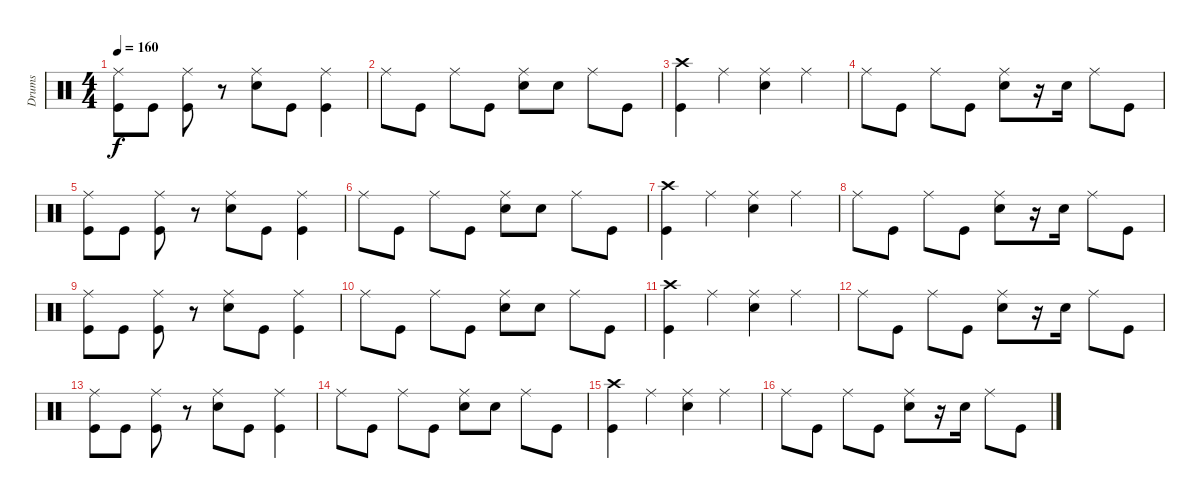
\track ("Drums" "Drums") {instrument percussion}
\staff {score}
\articulation defaults
\ts (4 4)
\tempo 160
\clef neutral
\ks c
("Ride (middle)" "Kick (hit)").8{dy f} "Kick (hit)".8 ("Ride (middle)" "Kick (hit)").8 r.8 ("Ride (middle)" "Electric Snare (hit)").8 "Kick (hit)".8 ("Ride (middle)" "Kick (hit)").4 |
"Ride (middle)".8 "Kick (hit)".8 "Ride (middle)".8 "Kick (hit)".8 ("Ride (middle)" "Electric Snare (hit)").8 "Electric Snare (hit)".8 "Ride (middle)".8 "Kick (hit)".8 |
("Crash high (hit)" "Kick (hit)").4 "Ride (middle)".4 ("Ride (middle)" "Electric Snare (hit)").4 "Ride (middle)".4 |
"Ride (middle)".8 "Kick (hit)".8 "Ride (middle)".8 "Kick (hit)".8 ("Ride (middle)" "Electric Snare (hit)").8 r.16 "Electric Snare (hit)".16 "Ride (middle)".8 "Kick (hit)".8 |
("Ride (middle)" "Kick (hit)").8 "Kick (hit)".8 ("Ride (middle)" "Kick (hit)").8 r.8 ("Ride (middle)" "Electric Snare (hit)").8 "Kick (hit)".8 ("Ride (middle)" "Kick (hit)").4 |
"Ride (middle)".8 "Kick (hit)".8 "Ride (middle)".8 "Kick (hit)".8 ("Ride (middle)" "Electric Snare (hit)").8 "Electric Snare (hit)".8 "Ride (middle)".8 "Kick (hit)".8 |
("Crash high (hit)" "Kick (hit)").4 "Ride (middle)".4 ("Ride (middle)" "Electric Snare (hit)").4 "Ride (middle)".4 |
"Ride (middle)".8 "Kick (hit)".8 "Ride (middle)".8 "Kick (hit)".8 ("Ride (middle)" "Electric Snare (hit)").8 r.16 "Electric Snare (hit)".16 "Ride (middle)".8 "Kick (hit)".8 |
("Ride (middle)" "Kick (hit)").8 "Kick (hit)".8 ("Ride (middle)" "Kick (hit)").8 r.8 ("Ride (middle)" "Electric Snare (hit)").8 "Kick (hit)".8 ("Ride (middle)" "Kick (hit)").4 |
"Ride (middle)".8 "Kick (hit)".8 "Ride (middle)".8 "Kick (hit)".8 ("Ride (middle)" "Electric Snare (hit)").8 "Electric Snare (hit)".8 "Ride (middle)".8 "Kick (hit)".8 |
("Crash high (hit)" "Kick (hit)").4 "Ride (middle)".4 ("Ride (middle)" "Electric Snare (hit)").4 "Ride (middle)".4 |
"Ride (middle)".8 "Kick (hit)".8 "Ride (middle)".8 "Kick (hit)".8 ("Ride (middle)" "Electric Snare (hit)").8 r.16 "Electric Snare (hit)".16 "Ride (middle)".8 "Kick (hit)".8 |
("Ride (middle)" "Kick (hit)").8 "Kick (hit)".8 ("Ride (middle)" "Kick (hit)").8 r.8 ("Ride (middle)" "Electric Snare (hit)").8 "Kick (hit)".8 ("Ride (middle)" "Kick (hit)").4 |
"Ride (middle)".8 "Kick (hit)".8 "Ride (middle)".8 "Kick (hit)".8 ("Ride (middle)" "Electric Snare (hit)").8 "Electric Snare (hit)".8 "Ride (middle)".8 "Kick (hit)".8 |
("Crash high (hit)" "Kick (hit)").4 "Ride (middle)".4 ("Ride (middle)" "Electric Snare (hit)").4 "Ride (middle)".4 |
"Ride (middle)".8 "Kick (hit)".8 "Ride (middle)".8 "Kick (hit)".8 ("Ride (middle)" "Electric Snare (hit)").8 r.16 "Electric Snare (hit)".16 "Ride (middle)".8 "Kick (hit)".8
